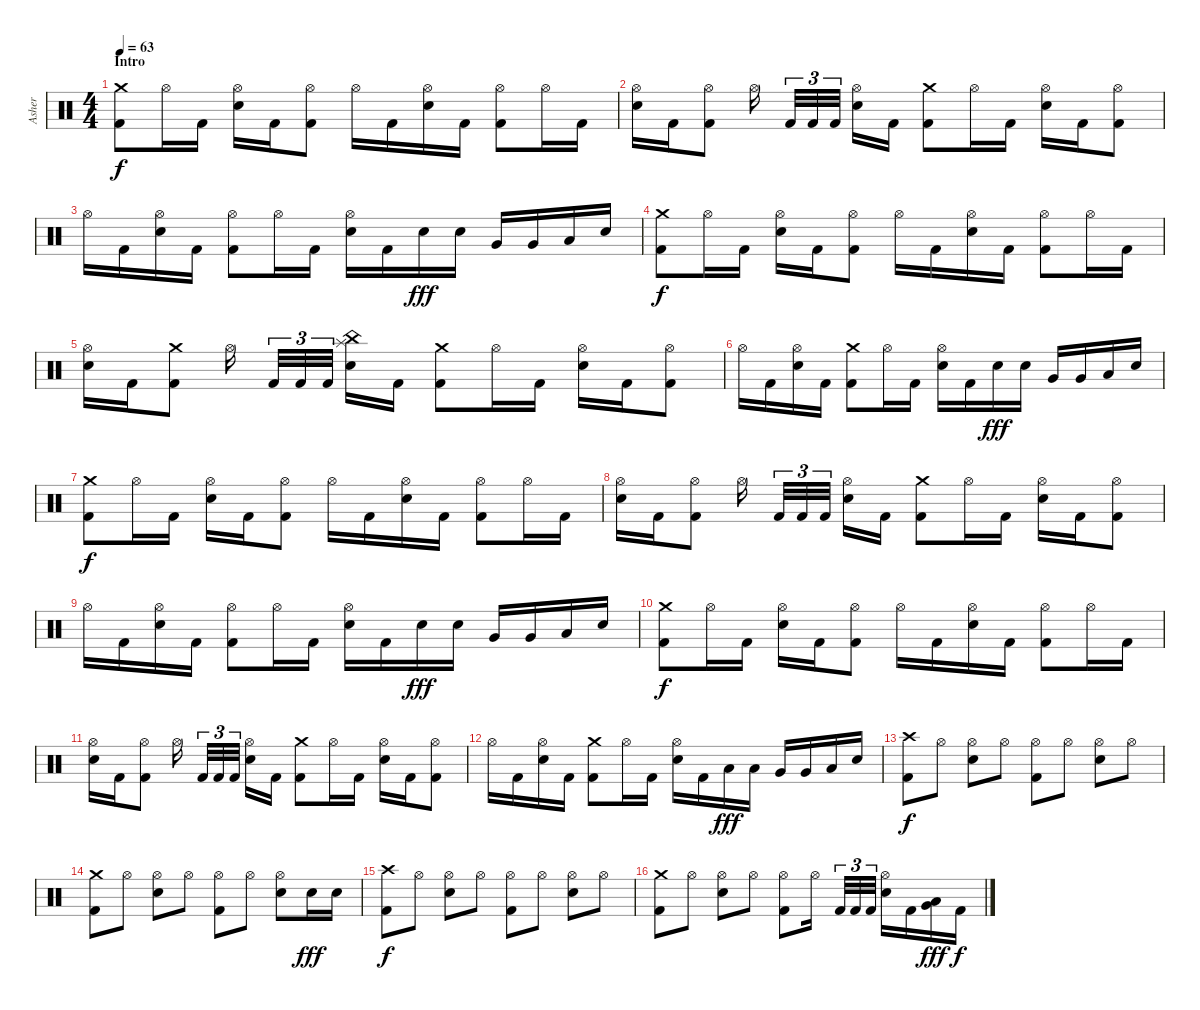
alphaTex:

\track ("Asher" "Asher") {instrument percussion}
\staff {score}
\articulation defaults
\ts (4 4)
\section ("" "Intro")
\tempo 63
\clef neutral
\ks c
("Crash medium (hit)" "Kick (hit) 2").8{dy f} "Hi-Hat (open)".16 "Kick (hit) 2".16 ("Hi-Hat (open)" "Electric Snare (hit)").16 "Kick (hit) 2".16 ("Hi-Hat (open)" "Kick (hit) 2").8 "Hi-Hat (open)".16 "Kick (hit) 2".16 ("Hi-Hat (open)" "Electric Snare (hit)").16 "Kick (hit) 2".16 ("Hi-Hat (open)" "Kick (hit) 2").8 "Hi-Hat (open)".16 "Kick (hit) 2".16 |
("Hi-Hat (open)" "Electric Snare (hit)").16 "Kick (hit) 2".16 ("Hi-Hat (open)" "Kick (hit) 2").8 "Hi-Hat (open)".16 "Kick (hit) 2".32{tu (3 2)} "Kick (hit) 2".32{tu (3 2)} "Kick (hit) 2".32{tu (3 2)} ("Hi-Hat (open)" "Electric Snare (hit)").16 "Kick (hit) 2".16 ("Crash medium (hit)" "Kick (hit) 2").8 "Hi-Hat (open)".16 "Kick (hit) 2".16 ("Hi-Hat (open)" "Electric Snare (hit)").16 "Kick (hit) 2".16 ("Hi-Hat (open)" "Kick (hit) 2").8 |
"Hi-Hat (open)".16 "Kick (hit) 2".16 ("Hi-Hat (open)" "Electric Snare (hit)").16 "Kick (hit) 2".16 ("Hi-Hat (open)" "Kick (hit) 2").8 "Hi-Hat (open)".16 "Kick (hit) 2".16 ("Hi-Hat (open)" "Electric Snare (hit)").16 "Kick (hit) 2".16 "Electric Snare (hit)".16{dy fff} "Electric Snare (hit)".16 "Very Low Tom (hit)".16 "Very Low Tom (hit)".16 "Low Floor Tom (hit)".16 "Electric Snare (hit)".16 |
("Crash medium (hit)" "Kick (hit) 2").8{dy f} "Hi-Hat (open)".16 "Kick (hit) 2".16 ("Hi-Hat (open)" "Electric Snare (hit)").16 "Kick (hit) 2".16 ("Hi-Hat (open)" "Kick (hit) 2").8 "Hi-Hat (open)".16 "Kick (hit) 2".16 ("Hi-Hat (open)" "Electric Snare (hit)").16 "Kick (hit) 2".16 ("Hi-Hat (open)" "Kick (hit) 2").8 "Hi-Hat (open)".16 "Kick (hit) 2".16 |
("Hi-Hat (open)" "Electric Snare (hit)").16 "Kick (hit) 2".16 ("Crash medium (hit)" "Kick (hit) 2").8 "Hi-Hat (open)".16 "Kick (hit) 2".32{tu (3 2)} "Kick (hit) 2".32{tu (3 2)} "Kick (hit) 2".32{tu (3 2)} ("China (hit)" "Splash (hit)" "Electric Snare (hit)").16 "Kick (hit) 2".16 ("Crash medium (hit)" "Kick (hit) 2").8 "Hi-Hat (open)".16 "Kick (hit) 2".16 ("Hi-Hat (open)" "Electric Snare (hit)").16 "Kick (hit) 2".16 ("Hi-Hat (open)" "Kick (hit) 2").8 |
"Hi-Hat (open)".16 "Kick (hit) 2".16 ("Hi-Hat (open)" "Electric Snare (hit)").16 "Kick (hit) 2".16 ("Crash medium (hit)" "Kick (hit) 2").8 "Hi-Hat (open)".16 "Kick (hit) 2".16 ("Hi-Hat (open)" "Electric Snare (hit)").16 "Kick (hit) 2".16 "Electric Snare (hit)".16{dy fff} "Electric Snare (hit)".16 "Very Low Tom (hit)".16 "Very Low Tom (hit)".16 "Low Floor Tom (hit)".16 "Electric Snare (hit)".16 |
("Crash medium (hit)" "Kick (hit) 2").8{dy f} "Hi-Hat (open)".16 "Kick (hit) 2".16 ("Hi-Hat (open)" "Electric Snare (hit)").16 "Kick (hit) 2".16 ("Hi-Hat (open)" "Kick (hit) 2").8 "Hi-Hat (open)".16 "Kick (hit) 2".16 ("Hi-Hat (open)" "Electric Snare (hit)").16 "Kick (hit) 2".16 ("Hi-Hat (open)" "Kick (hit) 2").8 "Hi-Hat (open)".16 "Kick (hit) 2".16 |
("Hi-Hat (open)" "Electric Snare (hit)").16 "Kick (hit) 2".16 ("Hi-Hat (open)" "Kick (hit) 2").8 "Hi-Hat (open)".16 "Kick (hit) 2".32{tu (3 2)} "Kick (hit) 2".32{tu (3 2)} "Kick (hit) 2".32{tu (3 2)} ("Hi-Hat (open)" "Electric Snare (hit)").16 "Kick (hit) 2".16 ("Crash medium (hit)" "Kick (hit) 2").8 "Hi-Hat (open)".16 "Kick (hit) 2".16 ("Hi-Hat (open)" "Electric Snare (hit)").16 "Kick (hit) 2".16 ("Hi-Hat (open)" "Kick (hit) 2").8 |
"Hi-Hat (open)".16 "Kick (hit) 2".16 ("Hi-Hat (open)" "Electric Snare (hit)").16 "Kick (hit) 2".16 ("Hi-Hat (open)" "Kick (hit) 2").8 "Hi-Hat (open)".16 "Kick (hit) 2".16 ("Hi-Hat (open)" "Electric Snare (hit)").16 "Kick (hit) 2".16 "Electric Snare (hit)".16{dy fff} "Electric Snare (hit)".16 "Very Low Tom (hit)".16 "Very Low Tom (hit)".16 "Low Floor Tom (hit)".16 "Electric Snare (hit)".16 |
("Crash medium (hit)" "Kick (hit) 2").8{dy f} "Hi-Hat (open)".16 "Kick (hit) 2".16 ("Hi-Hat (open)" "Electric Snare (hit)").16 "Kick (hit) 2".16 ("Hi-Hat (open)" "Kick (hit) 2").8 "Hi-Hat (open)".16 "Kick (hit) 2".16 ("Hi-Hat (open)" "Electric Snare (hit)").16 "Kick (hit) 2".16 ("Hi-Hat (open)" "Kick (hit) 2").8 "Hi-Hat (open)".16 "Kick (hit) 2".16 |
("Hi-Hat (open)" "Electric Snare (hit)").16 "Kick (hit) 2".16 ("Hi-Hat (open)" "Kick (hit) 2").8 "Hi-Hat (open)".16 "Kick (hit) 2".32{tu (3 2)} "Kick (hit) 2".32{tu (3 2)} "Kick (hit) 2".32{tu (3 2)} ("Hi-Hat (open)" "Electric Snare (hit)").16 "Kick (hit) 2".16 ("Crash medium (hit)" "Kick (hit) 2").8 "Hi-Hat (open)".16 "Kick (hit) 2".16 ("Hi-Hat (open)" "Electric Snare (hit)").16 "Kick (hit) 2".16 ("Hi-Hat (open)" "Kick (hit) 2").8 |
"Hi-Hat (open)".16 "Kick (hit) 2".16 ("Hi-Hat (open)" "Electric Snare (hit)").16 "Kick (hit) 2".16 ("Crash medium (hit)" "Kick (hit) 2").8 "Hi-Hat (open)".16 "Kick (hit) 2".16 ("Hi-Hat (open)" "Electric Snare (hit)").16 "Kick (hit) 2".16 "Low Tom (hit)".16{dy fff} "Low Tom (hit)".16 "Very Low Tom (hit)".16 "Very Low Tom (hit)".16 "Low Floor Tom (hit)".16 "Electric Snare (hit)".16 |
\section ("" "")
("Crash high (hit)" "Kick (hit) 2").8{dy f} "Hi-Hat (open)".8 ("Hi-Hat (open)" "Electric Snare (hit)").8 "Hi-Hat (open)".8 ("Hi-Hat (open)" "Kick (hit) 2").8 "Hi-Hat (open)".8 ("Hi-Hat (open)" "Electric Snare (hit)").8 "Hi-Hat (open)".8 |
("Crash medium (hit)" "Kick (hit) 2").8 "Hi-Hat (open)".8 ("Hi-Hat (open)" "Electric Snare (hit)").8 "Hi-Hat (open)".8 ("Hi-Hat (open)" "Kick (hit) 2").8 "Hi-Hat (open)".8 ("Hi-Hat (open)" "Electric Snare (hit)").8 "Electric Snare (hit)".16{dy fff} "Electric Snare (hit)".16 |
("Crash high (hit)" "Kick (hit) 2").8{dy f} "Hi-Hat (open)".8 ("Hi-Hat (open)" "Electric Snare (hit)").8 "Hi-Hat (open)".8 ("Hi-Hat (open)" "Kick (hit) 2").8 "Hi-Hat (open)".8 ("Hi-Hat (open)" "Electric Snare (hit)").8 "Hi-Hat (open)".8 |
("Crash medium (hit)" "Kick (hit) 2").8 "Hi-Hat (open)".8 ("Hi-Hat (open)" "Electric Snare (hit)").8 "Hi-Hat (open)".8 ("Hi-Hat (open)" "Kick (hit) 2").8 "Hi-Hat (open)".16 "Kick (hit) 2".32{tu (3 2)} "Kick (hit) 2".32{tu (3 2)} "Kick (hit) 2".32{tu (3 2)} ("Hi-Hat (open)" "Electric Snare (hit)").16 "Kick (hit) 2".16 ("Very Low Tom (hit)" "Low Floor Tom (hit)").16{dy fff} "Kick (hit) 2".16{dy f}
